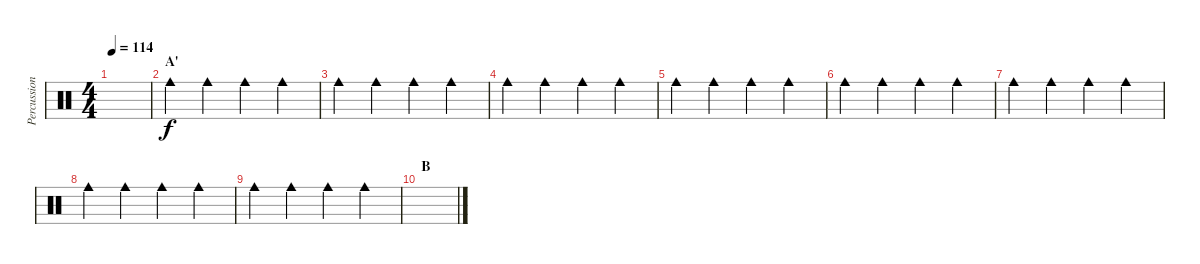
\track ("Percussion" "Percussion") {instrument percussion}
\staff {score}
\articulation defaults
\ts (4 4)
\section ("" "")
\tempo 114
\clef neutral
\ks c
|
\section ("" "A'")
"Cowbell medium (hit)".4 "Cowbell medium (hit)".4 "Cowbell medium (hit)".4 "Cowbell medium (hit)".4 |
"Cowbell medium (hit)".4 "Cowbell medium (hit)".4 "Cowbell medium (hit)".4 "Cowbell medium (hit)".4 |
"Cowbell medium (hit)".4 "Cowbell medium (hit)".4 "Cowbell medium (hit)".4 "Cowbell medium (hit)".4 |
"Cowbell medium (hit)".4 "Cowbell medium (hit)".4 "Cowbell medium (hit)".4 "Cowbell medium (hit)".4 |
"Cowbell medium (hit)".4 "Cowbell medium (hit)".4 "Cowbell medium (hit)".4 "Cowbell medium (hit)".4 |
"Cowbell medium (hit)".4 "Cowbell medium (hit)".4 "Cowbell medium (hit)".4 "Cowbell medium (hit)".4 |
"Cowbell medium (hit)".4 "Cowbell medium (hit)".4 "Cowbell medium (hit)".4 "Cowbell medium (hit)".4 |
"Cowbell medium (hit)".4 "Cowbell medium (hit)".4 "Cowbell medium (hit)".4 "Cowbell medium (hit)".4 |
\section ("" "B")
